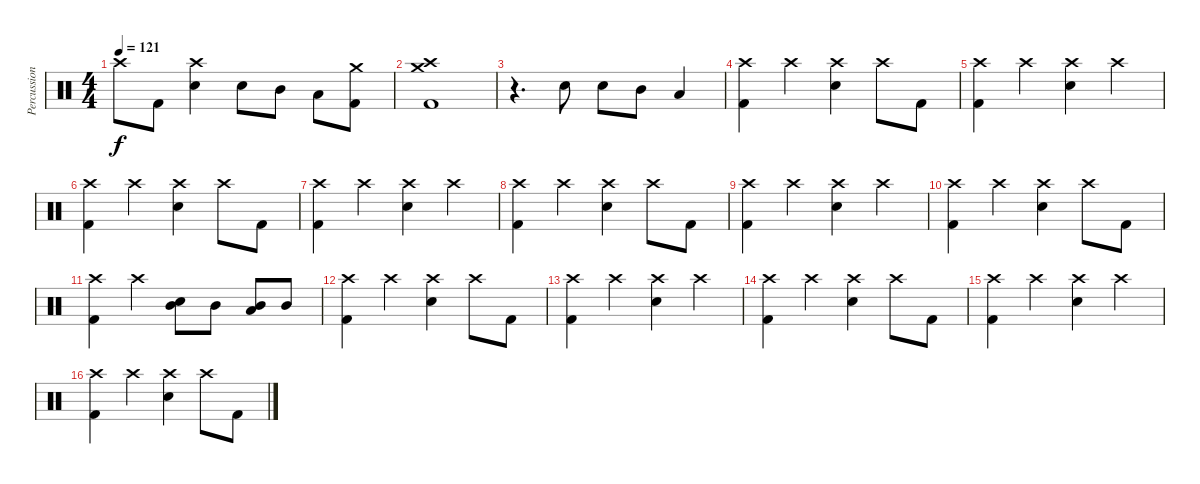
\track ("Percussion" "Percussion") {instrument percussion}
\staff {score}
\articulation defaults
\ts (4 4)
\tempo 121
\clef neutral
\ks c "Crash high (hit)".8{dy f} "Kick (hit) 2".8
("Crash high (hit)" "Snare (hit) 2").4 "Snare (hit) 2".8 "Mid Tom (hit)".8 "Low Tom (hit)".8 ("Crash medium (hit)" "Kick (hit) 2").8 |
("Crash medium (hit)" "Crash high (hit)" "Kick (hit) 2").1 |
r.4{d} "Snare (hit) 2".8 "Snare (hit) 2".8 "Mid Tom (hit)".8 "Low Tom (hit)".4 |
("Crash high (hit)" "Kick (hit) 2").4 "Crash high (hit)".4 ("Crash high (hit)" "Snare (hit) 2").4 "Crash high (hit)".8 "Kick (hit) 2".8 |
("Crash high (hit)" "Kick (hit) 2").4 "Crash high (hit)".4 ("Crash high (hit)" "Snare (hit) 2").4 "Crash high (hit)".4 |
("Crash high (hit)" "Kick (hit) 2").4 "Crash high (hit)".4 ("Crash high (hit)" "Snare (hit) 2").4 "Crash high (hit)".8 "Kick (hit) 2".8 |
("Crash high (hit)" "Kick (hit) 2").4 "Crash high (hit)".4 ("Crash high (hit)" "Snare (hit) 2").4 "Crash high (hit)".4 |
("Crash high (hit)" "Kick (hit) 2").4 "Crash high (hit)".4 ("Crash high (hit)" "Snare (hit) 2").4 "Crash high (hit)".8 "Kick (hit) 2".8 |
("Crash high (hit)" "Kick (hit) 2").4 "Crash high (hit)".4 ("Crash high (hit)" "Snare (hit) 2").4 "Crash high (hit)".4 |
("Crash high (hit)" "Kick (hit) 2").4 "Crash high (hit)".4 ("Crash high (hit)" "Snare (hit) 2").4 "Crash high (hit)".8 "Kick (hit) 2".8 |
("Crash high (hit)" "Kick (hit) 2").4 "Crash high (hit)".4 ("Snare (hit) 2" "Mid Tom (hit)").8 "Mid Tom (hit)".8 ("Low Tom (hit)" "Mid Tom (hit)").8 "Mid Tom (hit)".8 |
("Crash high (hit)" "Kick (hit) 2").4 "Crash high (hit)".4 ("Crash high (hit)" "Snare (hit) 2").4 "Crash high (hit)".8 "Kick (hit) 2".8 |
("Crash high (hit)" "Kick (hit) 2").4 "Crash high (hit)".4 ("Crash high (hit)" "Snare (hit) 2").4 "Crash high (hit)".4 |
("Crash high (hit)" "Kick (hit) 2").4 "Crash high (hit)".4 ("Crash high (hit)" "Snare (hit) 2").4 "Crash high (hit)".8 "Kick (hit) 2".8 |
("Crash high (hit)" "Kick (hit) 2").4 "Crash high (hit)".4 ("Crash high (hit)" "Snare (hit) 2").4 "Crash high (hit)".4 |
("Crash high (hit)" "Kick (hit) 2").4 "Crash high (hit)".4 ("Crash high (hit)" "Snare (hit) 2").4 "Crash high (hit)".8 "Kick (hit) 2".8
